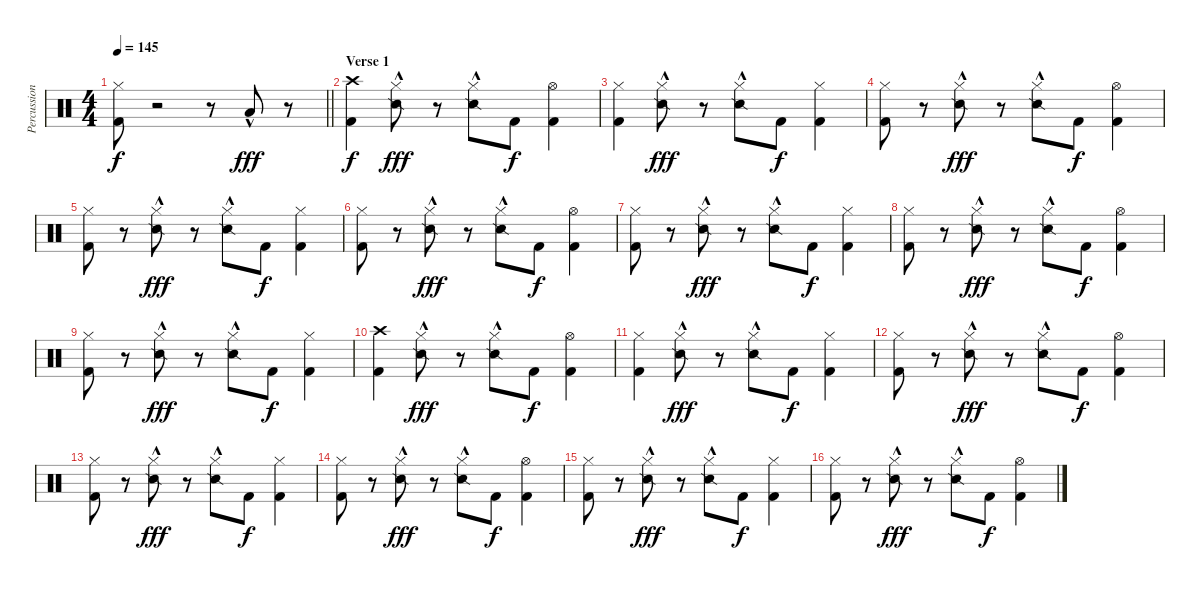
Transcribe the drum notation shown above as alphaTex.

\track ("Percussion 1" "Percussion") {instrument percussion}
\staff {score}
\articulation defaults
\ts (4 4)
\tempo 145
\clef neutral
\barLineRight lightlight
\ks c
("Hi-Hat (closed)" "Kick (hit) 2").8{dy f} r.2 r.8 "Low Tom (hit)"{hac}.8{dy fff} r.8 |
\section ("" "Verse 1")
("Crash high (hit)" "Kick (hit) 2").4{dy f} ("Hi-Hat (closed)" "Snare (side stick) 2"{hac}).8{dy fff} r.8 ("Hi-Hat (closed)" "Snare (side stick) 2"{hac}).8 "Kick (hit) 2".8{dy f} ("Hi-Hat (open)" "Kick (hit) 2").4 |
("Hi-Hat (closed)" "Kick (hit) 2").4 ("Hi-Hat (closed)" "Snare (side stick) 2"{hac}).8{dy fff} r.8 ("Hi-Hat (closed)" "Snare (side stick) 2"{hac}).8 "Kick (hit) 2".8{dy f} ("Hi-Hat (closed)" "Kick (hit) 2").4 |
("Hi-Hat (closed)" "Kick (hit) 2").8 r.8 ("Hi-Hat (closed)" "Snare (side stick) 2"{hac}).8{dy fff} r.8 ("Hi-Hat (closed)" "Snare (side stick) 2"{hac}).8 "Kick (hit) 2".8{dy f} ("Hi-Hat (open)" "Kick (hit) 2").4 |
("Hi-Hat (closed)" "Kick (hit) 2").8 r.8 ("Hi-Hat (closed)" "Snare (side stick) 2"{hac}).8{dy fff} r.8 ("Hi-Hat (closed)" "Snare (side stick) 2"{hac}).8 "Kick (hit) 2".8{dy f} ("Hi-Hat (closed)" "Kick (hit) 2").4 |
("Hi-Hat (closed)" "Kick (hit) 2").8 r.8 ("Hi-Hat (closed)" "Snare (side stick) 2"{hac}).8{dy fff} r.8 ("Hi-Hat (closed)" "Snare (side stick) 2"{hac}).8 "Kick (hit) 2".8{dy f} ("Hi-Hat (open)" "Kick (hit) 2").4 |
("Hi-Hat (closed)" "Kick (hit) 2").8 r.8 ("Hi-Hat (closed)" "Snare (side stick) 2"{hac}).8{dy fff} r.8 ("Hi-Hat (closed)" "Snare (side stick) 2"{hac}).8 "Kick (hit) 2".8{dy f} ("Hi-Hat (closed)" "Kick (hit) 2").4 |
("Hi-Hat (closed)" "Kick (hit) 2").8 r.8 ("Hi-Hat (closed)" "Snare (side stick) 2"{hac}).8{dy fff} r.8 ("Hi-Hat (closed)" "Snare (side stick) 2"{hac}).8 "Kick (hit) 2".8{dy f} ("Hi-Hat (open)" "Kick (hit) 2").4 |
("Hi-Hat (closed)" "Kick (hit) 2").8 r.8 ("Hi-Hat (closed)" "Snare (side stick) 2"{hac}).8{dy fff} r.8 ("Hi-Hat (closed)" "Snare (side stick) 2"{hac}).8 "Kick (hit) 2".8{dy f} ("Hi-Hat (closed)" "Kick (hit) 2").4 |
("Crash high (hit)" "Kick (hit) 2").4 ("Hi-Hat (closed)" "Snare (side stick) 2"{hac}).8{dy fff} r.8 ("Hi-Hat (closed)" "Snare (side stick) 2"{hac}).8 "Kick (hit) 2".8{dy f} ("Hi-Hat (open)" "Kick (hit) 2").4 |
("Hi-Hat (closed)" "Kick (hit) 2").4 ("Hi-Hat (closed)" "Snare (side stick) 2"{hac}).8{dy fff} r.8 ("Hi-Hat (closed)" "Snare (side stick) 2"{hac}).8 "Kick (hit) 2".8{dy f} ("Hi-Hat (closed)" "Kick (hit) 2").4 |
("Hi-Hat (closed)" "Kick (hit) 2").8 r.8 ("Hi-Hat (closed)" "Snare (side stick) 2"{hac}).8{dy fff} r.8 ("Hi-Hat (closed)" "Snare (side stick) 2"{hac}).8 "Kick (hit) 2".8{dy f} ("Hi-Hat (open)" "Kick (hit) 2").4 |
("Hi-Hat (closed)" "Kick (hit) 2").8 r.8 ("Hi-Hat (closed)" "Snare (side stick) 2"{hac}).8{dy fff} r.8 ("Hi-Hat (closed)" "Snare (side stick) 2"{hac}).8 "Kick (hit) 2".8{dy f} ("Hi-Hat (closed)" "Kick (hit) 2").4 |
("Hi-Hat (closed)" "Kick (hit) 2").8 r.8 ("Hi-Hat (closed)" "Snare (side stick) 2"{hac}).8{dy fff} r.8 ("Hi-Hat (closed)" "Snare (side stick) 2"{hac}).8 "Kick (hit) 2".8{dy f} ("Hi-Hat (open)" "Kick (hit) 2").4 |
("Hi-Hat (closed)" "Kick (hit) 2").8 r.8 ("Hi-Hat (closed)" "Snare (side stick) 2"{hac}).8{dy fff} r.8 ("Hi-Hat (closed)" "Snare (side stick) 2"{hac}).8 "Kick (hit) 2".8{dy f} ("Hi-Hat (closed)" "Kick (hit) 2").4 |
("Hi-Hat (closed)" "Kick (hit) 2").8 r.8 ("Hi-Hat (closed)" "Snare (side stick) 2"{hac}).8{dy fff} r.8 ("Hi-Hat (closed)" "Snare (side stick) 2"{hac}).8 "Kick (hit) 2".8{dy f} ("Hi-Hat (open)" "Kick (hit) 2").4
